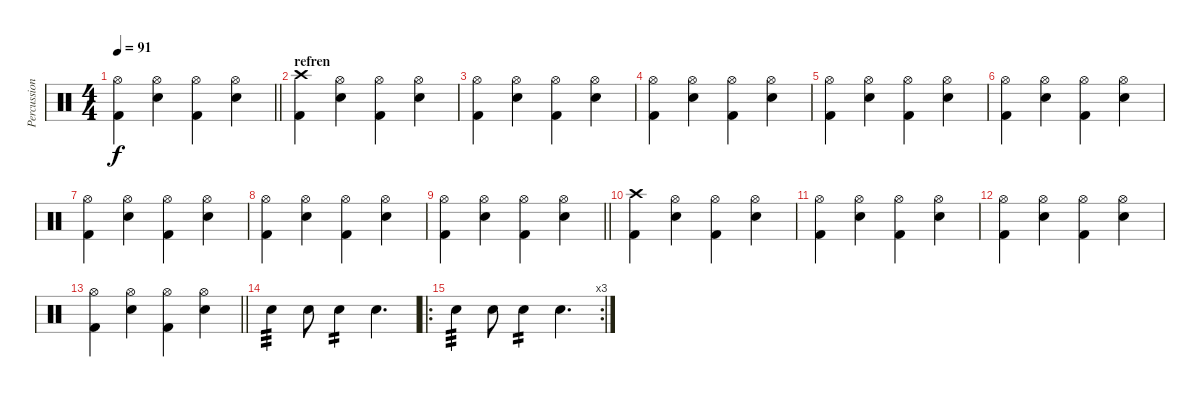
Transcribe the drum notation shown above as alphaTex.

\track ("Percussion" "Percussion") {instrument percussion}
\staff {score}
\articulation defaults
\ts (4 4)
\tempo 91
\clef neutral
\barLineRight lightlight
\ks c
("Hi-Hat (open)" "Kick (hit) 2").4{dy f} ("Snare (hit) 2" "Hi-Hat (open)").4 ("Hi-Hat (open)" "Kick (hit) 2").4 ("Hi-Hat (open)" "Snare (hit) 2").4 |
\section ("" "refren")
("Crash high (hit)" "Kick (hit) 2").4 ("Snare (hit) 2" "Hi-Hat (open)").4 ("Hi-Hat (open)" "Kick (hit) 2").4 ("Hi-Hat (open)" "Snare (hit) 2").4 |
("Hi-Hat (open)" "Kick (hit) 2").4 ("Snare (hit) 2" "Hi-Hat (open)").4 ("Hi-Hat (open)" "Kick (hit) 2").4 ("Hi-Hat (open)" "Snare (hit) 2").4 |
("Hi-Hat (open)" "Kick (hit) 2").4 ("Snare (hit) 2" "Hi-Hat (open)").4 ("Hi-Hat (open)" "Kick (hit) 2").4 ("Hi-Hat (open)" "Snare (hit) 2").4 |
("Hi-Hat (open)" "Kick (hit) 2").4 ("Snare (hit) 2" "Hi-Hat (open)").4 ("Hi-Hat (open)" "Kick (hit) 2").4 ("Hi-Hat (open)" "Snare (hit) 2").4 |
("Hi-Hat (open)" "Kick (hit) 2").4 ("Snare (hit) 2" "Hi-Hat (open)").4 ("Hi-Hat (open)" "Kick (hit) 2").4 ("Hi-Hat (open)" "Snare (hit) 2").4 |
("Hi-Hat (open)" "Kick (hit) 2").4 ("Snare (hit) 2" "Hi-Hat (open)").4 ("Hi-Hat (open)" "Kick (hit) 2").4 ("Hi-Hat (open)" "Snare (hit) 2").4 |
("Hi-Hat (open)" "Kick (hit) 2").4 ("Snare (hit) 2" "Hi-Hat (open)").4 ("Hi-Hat (open)" "Kick (hit) 2").4 ("Hi-Hat (open)" "Snare (hit) 2").4 |
\barLineRight lightlight
("Hi-Hat (open)" "Kick (hit) 2").4 ("Snare (hit) 2" "Hi-Hat (open)").4 ("Hi-Hat (open)" "Kick (hit) 2").4 ("Hi-Hat (open)" "Snare (hit) 2").4 |
("Crash high (hit)" "Kick (hit) 2").4 ("Snare (hit) 2" "Hi-Hat (open)").4 ("Hi-Hat (open)" "Kick (hit) 2").4 ("Hi-Hat (open)" "Snare (hit) 2").4 |
("Hi-Hat (open)" "Kick (hit) 2").4 ("Snare (hit) 2" "Hi-Hat (open)").4 ("Hi-Hat (open)" "Kick (hit) 2").4 ("Hi-Hat (open)" "Snare (hit) 2").4 |
("Hi-Hat (open)" "Kick (hit) 2").4 ("Snare (hit) 2" "Hi-Hat (open)").4 ("Hi-Hat (open)" "Kick (hit) 2").4 ("Hi-Hat (open)" "Snare (hit) 2").4 |
\barLineRight lightlight
("Hi-Hat (open)" "Kick (hit) 2").4 ("Snare (hit) 2" "Hi-Hat (open)").4 ("Hi-Hat (open)" "Kick (hit) 2").4 ("Hi-Hat (open)" "Snare (hit) 2").4 |
"Snare (hit) 2".4{tp 3} "Snare (hit) 2".8 "Snare (hit) 2".4{tp 2} "Snare (hit) 2".4{d} |
\ro
\rc 3 "Snare (hit) 2".4{tp 3} "Snare (hit) 2".8 "Snare (hit) 2".4{tp 2} "Snare (hit) 2".4{d}
